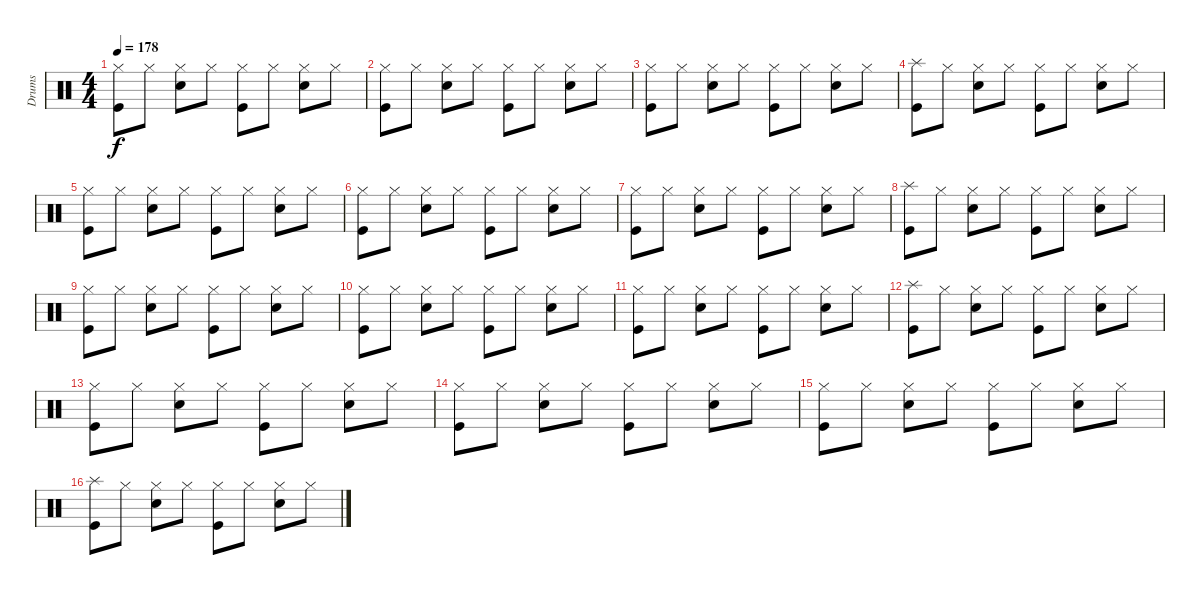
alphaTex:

\track ("Drums" "Drums") {instrument percussion}
\staff {score}
\articulation defaults
\ts (4 4)
\tempo 178
\clef neutral
\ks c
("Hi-Hat (closed)" "Kick (hit)").8{dy f} "Hi-Hat (closed)".8 ("Hi-Hat (closed)" "Electric Snare (hit)").8 "Hi-Hat (closed)".8 ("Hi-Hat (closed)" "Kick (hit)").8 "Hi-Hat (closed)".8 ("Hi-Hat (closed)" "Electric Snare (hit)").8 "Hi-Hat (closed)".8 |
("Hi-Hat (closed)" "Kick (hit)").8 "Hi-Hat (closed)".8 ("Hi-Hat (closed)" "Electric Snare (hit)").8 "Hi-Hat (closed)".8 ("Hi-Hat (closed)" "Kick (hit)").8 "Hi-Hat (closed)".8 ("Hi-Hat (closed)" "Electric Snare (hit)").8 "Hi-Hat (closed)".8 |
("Hi-Hat (closed)" "Kick (hit)").8 "Hi-Hat (closed)".8 ("Hi-Hat (closed)" "Electric Snare (hit)").8 "Hi-Hat (closed)".8 ("Hi-Hat (closed)" "Kick (hit)").8 "Hi-Hat (closed)".8 ("Hi-Hat (closed)" "Electric Snare (hit)").8 "Hi-Hat (closed)".8 |
("Splash (hit)" "Kick (hit)").8 "Hi-Hat (closed)".8 ("Hi-Hat (closed)" "Electric Snare (hit)").8 "Hi-Hat (closed)".8 ("Hi-Hat (closed)" "Kick (hit)").8 "Hi-Hat (closed)".8 ("Hi-Hat (closed)" "Electric Snare (hit)").8 "Hi-Hat (closed)".8 |
("Hi-Hat (closed)" "Kick (hit)").8 "Hi-Hat (closed)".8 ("Hi-Hat (closed)" "Electric Snare (hit)").8 "Hi-Hat (closed)".8 ("Hi-Hat (closed)" "Kick (hit)").8 "Hi-Hat (closed)".8 ("Hi-Hat (closed)" "Electric Snare (hit)").8 "Hi-Hat (closed)".8 |
("Hi-Hat (closed)" "Kick (hit)").8 "Hi-Hat (closed)".8 ("Hi-Hat (closed)" "Electric Snare (hit)").8 "Hi-Hat (closed)".8 ("Hi-Hat (closed)" "Kick (hit)").8 "Hi-Hat (closed)".8 ("Hi-Hat (closed)" "Electric Snare (hit)").8 "Hi-Hat (closed)".8 |
("Hi-Hat (closed)" "Kick (hit)").8 "Hi-Hat (closed)".8 ("Hi-Hat (closed)" "Electric Snare (hit)").8 "Hi-Hat (closed)".8 ("Hi-Hat (closed)" "Kick (hit)").8 "Hi-Hat (closed)".8 ("Hi-Hat (closed)" "Electric Snare (hit)").8 "Hi-Hat (closed)".8 |
("Splash (hit)" "Kick (hit)").8 "Hi-Hat (closed)".8 ("Hi-Hat (closed)" "Electric Snare (hit)").8 "Hi-Hat (closed)".8 ("Hi-Hat (closed)" "Kick (hit)").8 "Hi-Hat (closed)".8 ("Hi-Hat (closed)" "Electric Snare (hit)").8 "Hi-Hat (closed)".8 |
("Hi-Hat (closed)" "Kick (hit)").8 "Hi-Hat (closed)".8 ("Hi-Hat (closed)" "Electric Snare (hit)").8 "Hi-Hat (closed)".8 ("Hi-Hat (closed)" "Kick (hit)").8 "Hi-Hat (closed)".8 ("Hi-Hat (closed)" "Electric Snare (hit)").8 "Hi-Hat (closed)".8 |
("Hi-Hat (closed)" "Kick (hit)").8 "Hi-Hat (closed)".8 ("Hi-Hat (closed)" "Electric Snare (hit)").8 "Hi-Hat (closed)".8 ("Hi-Hat (closed)" "Kick (hit)").8 "Hi-Hat (closed)".8 ("Hi-Hat (closed)" "Electric Snare (hit)").8 "Hi-Hat (closed)".8 |
("Hi-Hat (closed)" "Kick (hit)").8 "Hi-Hat (closed)".8 ("Hi-Hat (closed)" "Electric Snare (hit)").8 "Hi-Hat (closed)".8 ("Hi-Hat (closed)" "Kick (hit)").8 "Hi-Hat (closed)".8 ("Hi-Hat (closed)" "Electric Snare (hit)").8 "Hi-Hat (closed)".8 |
("Splash (hit)" "Kick (hit)").8 "Hi-Hat (closed)".8 ("Hi-Hat (closed)" "Electric Snare (hit)").8 "Hi-Hat (closed)".8 ("Hi-Hat (closed)" "Kick (hit)").8 "Hi-Hat (closed)".8 ("Hi-Hat (closed)" "Electric Snare (hit)").8 "Hi-Hat (closed)".8 |
("Hi-Hat (closed)" "Kick (hit)").8 "Hi-Hat (closed)".8 ("Hi-Hat (closed)" "Electric Snare (hit)").8 "Hi-Hat (closed)".8 ("Hi-Hat (closed)" "Kick (hit)").8 "Hi-Hat (closed)".8 ("Hi-Hat (closed)" "Electric Snare (hit)").8 "Hi-Hat (closed)".8 |
("Hi-Hat (closed)" "Kick (hit)").8 "Hi-Hat (closed)".8 ("Hi-Hat (closed)" "Electric Snare (hit)").8 "Hi-Hat (closed)".8 ("Hi-Hat (closed)" "Kick (hit)").8 "Hi-Hat (closed)".8 ("Hi-Hat (closed)" "Electric Snare (hit)").8 "Hi-Hat (closed)".8 |
("Hi-Hat (closed)" "Kick (hit)").8 "Hi-Hat (closed)".8 ("Hi-Hat (closed)" "Electric Snare (hit)").8 "Hi-Hat (closed)".8 ("Hi-Hat (closed)" "Kick (hit)").8 "Hi-Hat (closed)".8 ("Hi-Hat (closed)" "Electric Snare (hit)").8 "Hi-Hat (closed)".8 |
("Splash (hit)" "Kick (hit)").8 "Hi-Hat (closed)".8 ("Hi-Hat (closed)" "Electric Snare (hit)").8 "Hi-Hat (closed)".8 ("Hi-Hat (closed)" "Kick (hit)").8 "Hi-Hat (closed)".8 ("Hi-Hat (closed)" "Electric Snare (hit)").8 "Hi-Hat (closed)".8
